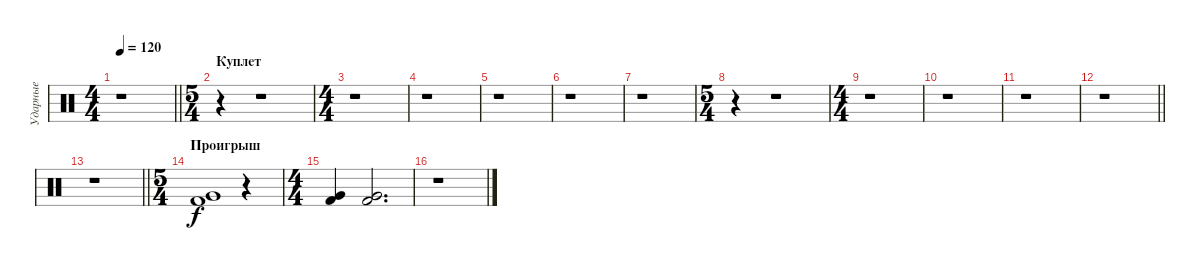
\track ("Ударные" "Ударные") {instrument percussion}
\staff {score}
\articulation defaults
\ts (4 4)
\tempo 120
\clef neutral
\barLineRight lightlight
\ks c
r.1{dy f} |
\ts (5 4)
\section ("" "Куплет")
r.4 r.1 |
\ts (4 4)
r.1 |
r.1 |
r.1 |
r.1 |
r.1 |
\ts (5 4)
r.4 r.1 |
\ts (4 4)
r.1 |
r.1 |
r.1 |
\barLineRight lightlight
r.1 |
\section ("" "")
\barLineRight lightlight
r.1 |
\ts (5 4)
\section ("" "Проигрыш")
("Very Low Tom (hit)" "Kick (hit) 2").1 r.4 |
\ts (4 4)
("Very Low Tom (hit)" "Kick (hit) 2").4 ("Very Low Tom (hit)" "Kick (hit) 2").2{d} |
r.1
